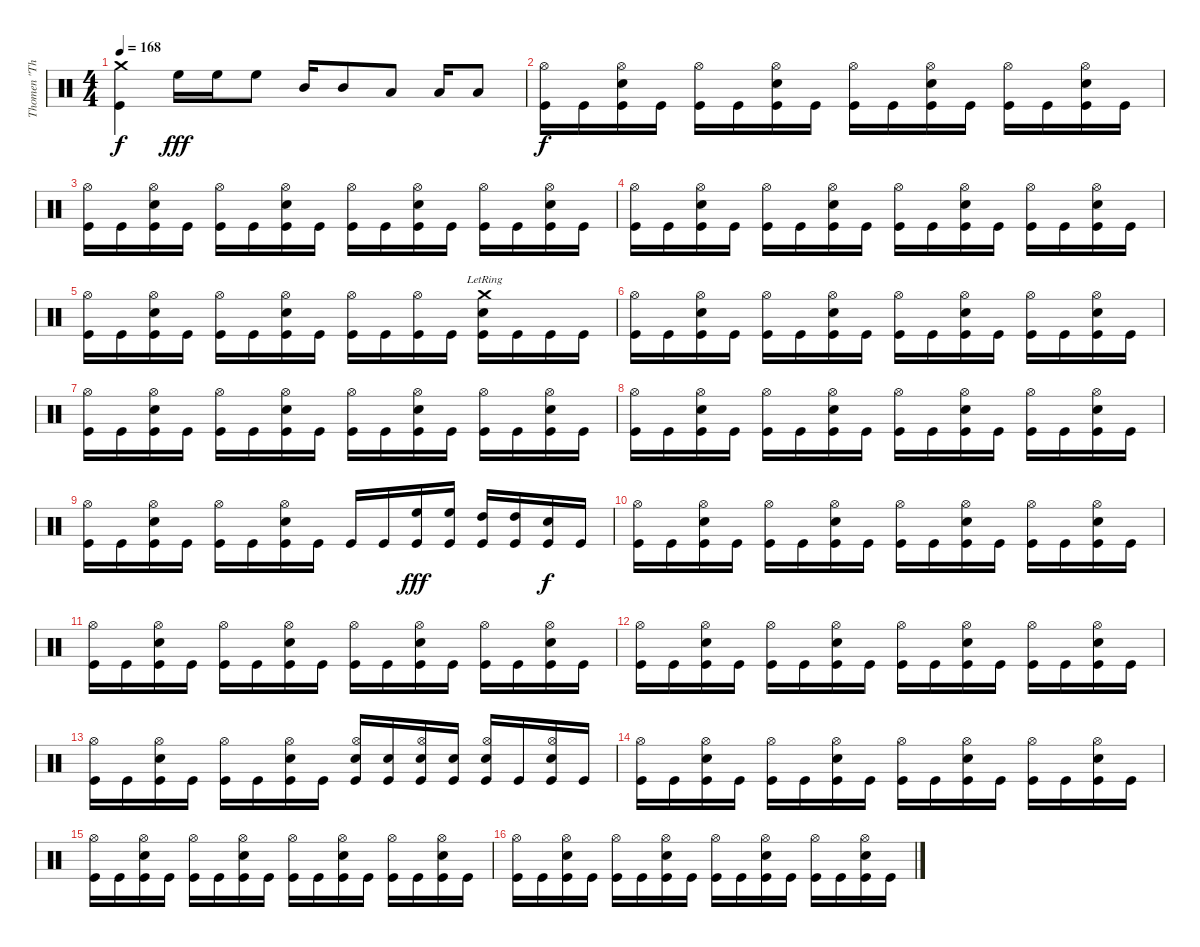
\track ("Thomen \"The Omen\" Stauch" "Thomen \"Th") {instrument percussion}
\staff {score}
\articulation defaults
\ts (4 4)
\tempo 168
\clef neutral
\ks c
("Crash medium (hit)" "Kick (hit)").4{dy f} "High Floor Tom (hit)".16{dy fff} "High Floor Tom (hit)".16 "High Floor Tom (hit)".8 "Mid Tom (hit)".16 "Mid Tom (hit)".8 "Low Tom (hit)".8 "Low Tom (hit)".16 "Low Tom (hit)".8 |
("Hi-Hat (open)" "Kick (hit)").16{dy f} "Kick (hit)".16 ("Hi-Hat (open)" "Snare (hit) 2" "Kick (hit)").16 "Kick (hit)".16 ("Hi-Hat (open)" "Kick (hit)").16 "Kick (hit)".16 ("Hi-Hat (open)" "Snare (hit) 2" "Kick (hit)").16 "Kick (hit)".16 ("Hi-Hat (open)" "Kick (hit)").16 "Kick (hit)".16 ("Hi-Hat (open)" "Snare (hit) 2" "Kick (hit)").16 "Kick (hit)".16 ("Hi-Hat (open)" "Kick (hit)").16 "Kick (hit)".16 ("Hi-Hat (open)" "Snare (hit) 2" "Kick (hit)").16 "Kick (hit)".16 |
("Hi-Hat (open)" "Kick (hit)").16 "Kick (hit)".16 ("Hi-Hat (open)" "Snare (hit) 2" "Kick (hit)").16 "Kick (hit)".16 ("Hi-Hat (open)" "Kick (hit)").16 "Kick (hit)".16 ("Hi-Hat (open)" "Snare (hit) 2" "Kick (hit)").16 "Kick (hit)".16 ("Hi-Hat (open)" "Kick (hit)").16 "Kick (hit)".16 ("Hi-Hat (open)" "Snare (hit) 2" "Kick (hit)").16 "Kick (hit)".16 ("Hi-Hat (open)" "Kick (hit)").16 "Kick (hit)".16 ("Hi-Hat (open)" "Snare (hit) 2" "Kick (hit)").16 "Kick (hit)".16 |
("Hi-Hat (open)" "Kick (hit)").16 "Kick (hit)".16 ("Hi-Hat (open)" "Snare (hit) 2" "Kick (hit)").16 "Kick (hit)".16 ("Hi-Hat (open)" "Kick (hit)").16 "Kick (hit)".16 ("Hi-Hat (open)" "Snare (hit) 2" "Kick (hit)").16 "Kick (hit)".16 ("Hi-Hat (open)" "Kick (hit)").16 "Kick (hit)".16 ("Hi-Hat (open)" "Snare (hit) 2" "Kick (hit)").16 "Kick (hit)".16 ("Hi-Hat (open)" "Kick (hit)").16 "Kick (hit)".16 ("Hi-Hat (open)" "Snare (hit) 2" "Kick (hit)").16 "Kick (hit)".16 |
("Hi-Hat (open)" "Kick (hit)").16 "Kick (hit)".16 ("Hi-Hat (open)" "Snare (hit) 2" "Kick (hit)").16 "Kick (hit)".16 ("Hi-Hat (open)" "Kick (hit)").16 "Kick (hit)".16 ("Hi-Hat (open)" "Snare (hit) 2" "Kick (hit)").16 "Kick (hit)".16 ("Hi-Hat (open)" "Kick (hit)").16 "Kick (hit)".16 ("Hi-Hat (open)" "Kick (hit)").16 "Kick (hit)".16 ("Crash medium (hit)"{lr} "Snare (hit) 2" "Kick (hit)").16 "Kick (hit)".16 "Kick (hit)".16 "Kick (hit)".16 |
("Hi-Hat (open)" "Kick (hit)").16 "Kick (hit)".16 ("Hi-Hat (open)" "Snare (hit) 2" "Kick (hit)").16 "Kick (hit)".16 ("Hi-Hat (open)" "Kick (hit)").16 "Kick (hit)".16 ("Hi-Hat (open)" "Snare (hit) 2" "Kick (hit)").16 "Kick (hit)".16 ("Hi-Hat (open)" "Kick (hit)").16 "Kick (hit)".16 ("Hi-Hat (open)" "Snare (hit) 2" "Kick (hit)").16 "Kick (hit)".16 ("Hi-Hat (open)" "Kick (hit)").16 "Kick (hit)".16 ("Hi-Hat (open)" "Snare (hit) 2" "Kick (hit)").16 "Kick (hit)".16 |
("Hi-Hat (open)" "Kick (hit)").16 "Kick (hit)".16 ("Hi-Hat (open)" "Snare (hit) 2" "Kick (hit)").16 "Kick (hit)".16 ("Hi-Hat (open)" "Kick (hit)").16 "Kick (hit)".16 ("Hi-Hat (open)" "Snare (hit) 2" "Kick (hit)").16 "Kick (hit)".16 ("Hi-Hat (open)" "Kick (hit)").16 "Kick (hit)".16 ("Hi-Hat (open)" "Snare (hit) 2" "Kick (hit)").16 "Kick (hit)".16 ("Hi-Hat (open)" "Kick (hit)").16 "Kick (hit)".16 ("Hi-Hat (open)" "Snare (hit) 2" "Kick (hit)").16 "Kick (hit)".16 |
("Hi-Hat (open)" "Kick (hit)").16 "Kick (hit)".16 ("Hi-Hat (open)" "Snare (hit) 2" "Kick (hit)").16 "Kick (hit)".16 ("Hi-Hat (open)" "Kick (hit)").16 "Kick (hit)".16 ("Hi-Hat (open)" "Snare (hit) 2" "Kick (hit)").16 "Kick (hit)".16 ("Hi-Hat (open)" "Kick (hit)").16 "Kick (hit)".16 ("Hi-Hat (open)" "Snare (hit) 2" "Kick (hit)").16 "Kick (hit)".16 ("Hi-Hat (open)" "Kick (hit)").16 "Kick (hit)".16 ("Hi-Hat (open)" "Snare (hit) 2" "Kick (hit)").16 "Kick (hit)".16 |
("Hi-Hat (open)" "Kick (hit)").16 "Kick (hit)".16 ("Hi-Hat (open)" "Snare (hit) 2" "Kick (hit)").16 "Kick (hit)".16 ("Hi-Hat (open)" "Kick (hit)").16 "Kick (hit)".16 ("Hi-Hat (open)" "Snare (hit) 2" "Kick (hit)").16 "Kick (hit)".16 "Kick (hit)".16 "Kick (hit)".16 ("High Floor Tom (hit)" "Kick (hit)").16{dy fff} ("High Floor Tom (hit)" "Kick (hit)").16 ("High Tom (hit)" "Kick (hit)").16 ("High Tom (hit)" "Kick (hit)").16 ("Snare (hit) 2" "Kick (hit)").16{dy f} "Kick (hit)".16 |
("Hi-Hat (open)" "Kick (hit)").16 "Kick (hit)".16 ("Hi-Hat (open)" "Snare (hit) 2" "Kick (hit)").16 "Kick (hit)".16 ("Hi-Hat (open)" "Kick (hit)").16 "Kick (hit)".16 ("Hi-Hat (open)" "Snare (hit) 2" "Kick (hit)").16 "Kick (hit)".16 ("Hi-Hat (open)" "Kick (hit)").16 "Kick (hit)".16 ("Hi-Hat (open)" "Snare (hit) 2" "Kick (hit)").16 "Kick (hit)".16 ("Hi-Hat (open)" "Kick (hit)").16 "Kick (hit)".16 ("Hi-Hat (open)" "Snare (hit) 2" "Kick (hit)").16 "Kick (hit)".16 |
("Hi-Hat (open)" "Kick (hit)").16 "Kick (hit)".16 ("Hi-Hat (open)" "Snare (hit) 2" "Kick (hit)").16 "Kick (hit)".16 ("Hi-Hat (open)" "Kick (hit)").16 "Kick (hit)".16 ("Hi-Hat (open)" "Snare (hit) 2" "Kick (hit)").16 "Kick (hit)".16 ("Hi-Hat (open)" "Kick (hit)").16 "Kick (hit)".16 ("Hi-Hat (open)" "Snare (hit) 2" "Kick (hit)").16 "Kick (hit)".16 ("Hi-Hat (open)" "Kick (hit)").16 "Kick (hit)".16 ("Hi-Hat (open)" "Snare (hit) 2" "Kick (hit)").16 "Kick (hit)".16 |
("Hi-Hat (open)" "Kick (hit)").16 "Kick (hit)".16 ("Hi-Hat (open)" "Snare (hit) 2" "Kick (hit)").16 "Kick (hit)".16 ("Hi-Hat (open)" "Kick (hit)").16 "Kick (hit)".16 ("Hi-Hat (open)" "Snare (hit) 2" "Kick (hit)").16 "Kick (hit)".16 ("Hi-Hat (open)" "Kick (hit)").16 "Kick (hit)".16 ("Hi-Hat (open)" "Snare (hit) 2" "Kick (hit)").16 "Kick (hit)".16 ("Hi-Hat (open)" "Kick (hit)").16 "Kick (hit)".16 ("Hi-Hat (open)" "Snare (hit) 2" "Kick (hit)").16 "Kick (hit)".16 |
("Hi-Hat (open)" "Kick (hit)").16 "Kick (hit)".16 ("Hi-Hat (open)" "Snare (hit) 2" "Kick (hit)").16 "Kick (hit)".16 ("Hi-Hat (open)" "Kick (hit)").16 "Kick (hit)".16 ("Hi-Hat (open)" "Snare (hit) 2" "Kick (hit)").16 "Kick (hit)".16 ("Hi-Hat (open)" "Snare (hit) 2" "Kick (hit)").16 ("Snare (hit) 2" "Kick (hit)").16 ("Hi-Hat (open)" "Snare (hit) 2" "Kick (hit)").16 ("Snare (hit) 2" "Kick (hit)").16 ("Hi-Hat (open)" "Snare (hit) 2" "Kick (hit)").16 "Kick (hit)".16 ("Hi-Hat (open)" "Snare (hit) 2" "Kick (hit)").16 "Kick (hit)".16 |
("Hi-Hat (open)" "Kick (hit)").16 "Kick (hit)".16 ("Hi-Hat (open)" "Snare (hit) 2" "Kick (hit)").16 "Kick (hit)".16 ("Hi-Hat (open)" "Kick (hit)").16 "Kick (hit)".16 ("Hi-Hat (open)" "Snare (hit) 2" "Kick (hit)").16 "Kick (hit)".16 ("Hi-Hat (open)" "Kick (hit)").16 "Kick (hit)".16 ("Hi-Hat (open)" "Snare (hit) 2" "Kick (hit)").16 "Kick (hit)".16 ("Hi-Hat (open)" "Kick (hit)").16 "Kick (hit)".16 ("Hi-Hat (open)" "Snare (hit) 2" "Kick (hit)").16 "Kick (hit)".16 |
("Hi-Hat (open)" "Kick (hit)").16 "Kick (hit)".16 ("Hi-Hat (open)" "Snare (hit) 2" "Kick (hit)").16 "Kick (hit)".16 ("Hi-Hat (open)" "Kick (hit)").16 "Kick (hit)".16 ("Hi-Hat (open)" "Snare (hit) 2" "Kick (hit)").16 "Kick (hit)".16 ("Hi-Hat (open)" "Kick (hit)").16 "Kick (hit)".16 ("Hi-Hat (open)" "Snare (hit) 2" "Kick (hit)").16 "Kick (hit)".16 ("Hi-Hat (open)" "Kick (hit)").16 "Kick (hit)".16 ("Hi-Hat (open)" "Snare (hit) 2" "Kick (hit)").16 "Kick (hit)".16 |
("Hi-Hat (open)" "Kick (hit)").16 "Kick (hit)".16 ("Hi-Hat (open)" "Snare (hit) 2" "Kick (hit)").16 "Kick (hit)".16 ("Hi-Hat (open)" "Kick (hit)").16 "Kick (hit)".16 ("Hi-Hat (open)" "Snare (hit) 2" "Kick (hit)").16 "Kick (hit)".16 ("Hi-Hat (open)" "Kick (hit)").16 "Kick (hit)".16 ("Hi-Hat (open)" "Snare (hit) 2" "Kick (hit)").16 "Kick (hit)".16 ("Hi-Hat (open)" "Kick (hit)").16 "Kick (hit)".16 ("Hi-Hat (open)" "Snare (hit) 2" "Kick (hit)").16 "Kick (hit)".16
